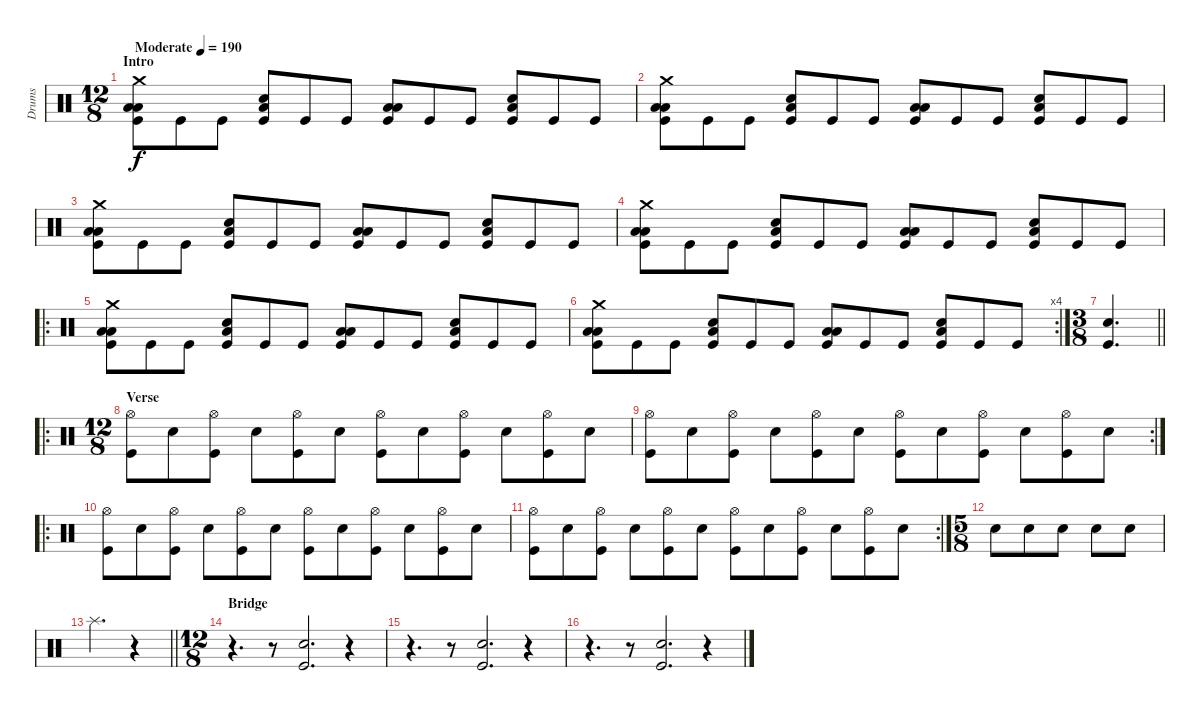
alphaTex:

\track ("Drums" "Drums") {instrument percussion}
\staff {score}
\articulation defaults
\ts (12 8)
\section ("" "Intro")
\tempo (190 "Moderate")
\clef neutral
\ks c
("Crash medium (hit)" "Low Tom (hit)" "Low Floor Tom (hit)" "Kick (hit)").8{dy f} "Kick (hit)".8 "Kick (hit)".8 ("Snare (hit) 2" "Low Floor Tom (hit)" "Kick (hit)").8 "Kick (hit)".8 "Kick (hit)".8 ("Low Tom (hit)" "Low Floor Tom (hit)" "Kick (hit)").8 "Kick (hit)".8 "Kick (hit)".8 ("Snare (hit) 2" "Low Floor Tom (hit)" "Kick (hit)").8 "Kick (hit)".8 "Kick (hit)".8 |
("Crash medium (hit)" "Low Tom (hit)" "Low Floor Tom (hit)" "Kick (hit)").8 "Kick (hit)".8 "Kick (hit)".8 ("Snare (hit) 2" "Low Floor Tom (hit)" "Kick (hit)").8 "Kick (hit)".8 "Kick (hit)".8 ("Low Tom (hit)" "Low Floor Tom (hit)" "Kick (hit)").8 "Kick (hit)".8 "Kick (hit)".8 ("Snare (hit) 2" "Low Floor Tom (hit)" "Kick (hit)").8 "Kick (hit)".8 "Kick (hit)".8 |
("Crash medium (hit)" "Low Tom (hit)" "Low Floor Tom (hit)" "Kick (hit)").8 "Kick (hit)".8 "Kick (hit)".8 ("Snare (hit) 2" "Low Floor Tom (hit)" "Kick (hit)").8 "Kick (hit)".8 "Kick (hit)".8 ("Low Tom (hit)" "Low Floor Tom (hit)" "Kick (hit)").8 "Kick (hit)".8 "Kick (hit)".8 ("Snare (hit) 2" "Low Floor Tom (hit)" "Kick (hit)").8 "Kick (hit)".8 "Kick (hit)".8 |
("Crash medium (hit)" "Low Tom (hit)" "Low Floor Tom (hit)" "Kick (hit)").8 "Kick (hit)".8 "Kick (hit)".8 ("Snare (hit) 2" "Low Floor Tom (hit)" "Kick (hit)").8 "Kick (hit)".8 "Kick (hit)".8 ("Low Tom (hit)" "Low Floor Tom (hit)" "Kick (hit)").8 "Kick (hit)".8 "Kick (hit)".8 ("Snare (hit) 2" "Low Floor Tom (hit)" "Kick (hit)").8 "Kick (hit)".8 "Kick (hit)".8 |
\ro
("Crash medium (hit)" "Low Tom (hit)" "Low Floor Tom (hit)" "Kick (hit)").8 "Kick (hit)".8 "Kick (hit)".8 ("Snare (hit) 2" "Low Floor Tom (hit)" "Kick (hit)").8 "Kick (hit)".8 "Kick (hit)".8 ("Low Tom (hit)" "Low Floor Tom (hit)" "Kick (hit)").8 "Kick (hit)".8 "Kick (hit)".8 ("Snare (hit) 2" "Low Floor Tom (hit)" "Kick (hit)").8 "Kick (hit)".8 "Kick (hit)".8 |
\rc 4
("Crash medium (hit)" "Low Tom (hit)" "Low Floor Tom (hit)" "Kick (hit)").8 "Kick (hit)".8 "Kick (hit)".8 ("Snare (hit) 2" "Low Floor Tom (hit)" "Kick (hit)").8 "Kick (hit)".8 "Kick (hit)".8 ("Low Tom (hit)" "Low Floor Tom (hit)" "Kick (hit)").8 "Kick (hit)".8 "Kick (hit)".8 ("Snare (hit) 2" "Low Floor Tom (hit)" "Kick (hit)").8 "Kick (hit)".8 "Kick (hit)".8 |
\ts (3 8)
\barLineRight lightlight
("Snare (hit) 2" "Kick (hit)").4{d} |
\ro
\ts (12 8)
\section ("" "Verse")
("Hi-Hat (open)" "Kick (hit)").8 "Snare (hit) 2".8 ("Hi-Hat (open)" "Kick (hit)").8 "Snare (hit) 2".8 ("Hi-Hat (open)" "Kick (hit)").8 "Snare (hit) 2".8 ("Hi-Hat (open)" "Kick (hit)").8 "Snare (hit) 2".8 ("Hi-Hat (open)" "Kick (hit)").8 "Snare (hit) 2".8 ("Hi-Hat (open)" "Kick (hit)").8 "Snare (hit) 2".8 |
\rc 2
("Hi-Hat (open)" "Kick (hit)").8 "Snare (hit) 2".8 ("Hi-Hat (open)" "Kick (hit)").8 "Snare (hit) 2".8 ("Hi-Hat (open)" "Kick (hit)").8 "Snare (hit) 2".8 ("Hi-Hat (open)" "Kick (hit)").8 "Snare (hit) 2".8 ("Hi-Hat (open)" "Kick (hit)").8 "Snare (hit) 2".8 ("Hi-Hat (open)" "Kick (hit)").8 "Snare (hit) 2".8 |
\ro
("Hi-Hat (open)" "Kick (hit)").8 "Snare (hit) 2".8 ("Hi-Hat (open)" "Kick (hit)").8 "Snare (hit) 2".8 ("Hi-Hat (open)" "Kick (hit)").8 "Snare (hit) 2".8 ("Hi-Hat (open)" "Kick (hit)").8 "Snare (hit) 2".8 ("Hi-Hat (open)" "Kick (hit)").8 "Snare (hit) 2".8 ("Hi-Hat (open)" "Kick (hit)").8 "Snare (hit) 2".8 |
\rc 2
("Hi-Hat (open)" "Kick (hit)").8 "Snare (hit) 2".8 ("Hi-Hat (open)" "Kick (hit)").8 "Snare (hit) 2".8 ("Hi-Hat (open)" "Kick (hit)").8 "Snare (hit) 2".8 ("Hi-Hat (open)" "Kick (hit)").8 "Snare (hit) 2".8 ("Hi-Hat (open)" "Kick (hit)").8 "Snare (hit) 2".8 ("Hi-Hat (open)" "Kick (hit)").8 "Snare (hit) 2".8 |
\ts (5 8)
"Snare (hit) 2".8 "Snare (hit) 2".8 "Snare (hit) 2".8 "Snare (hit) 2".8 "Snare (hit) 2".8 |
\barLineRight lightlight "Splash (hit)".4{d}
r.4 |
\ts (12 8)
\section ("" "Bridge")
r.4{d} r.8 ("Snare (hit) 2" "Kick (hit)").2{d} r.4 |
r.4{d} r.8 ("Snare (hit) 2" "Kick (hit)").2{d} r.4 |
r.4{d} r.8 ("Snare (hit) 2" "Kick (hit)").2{d} r.4
